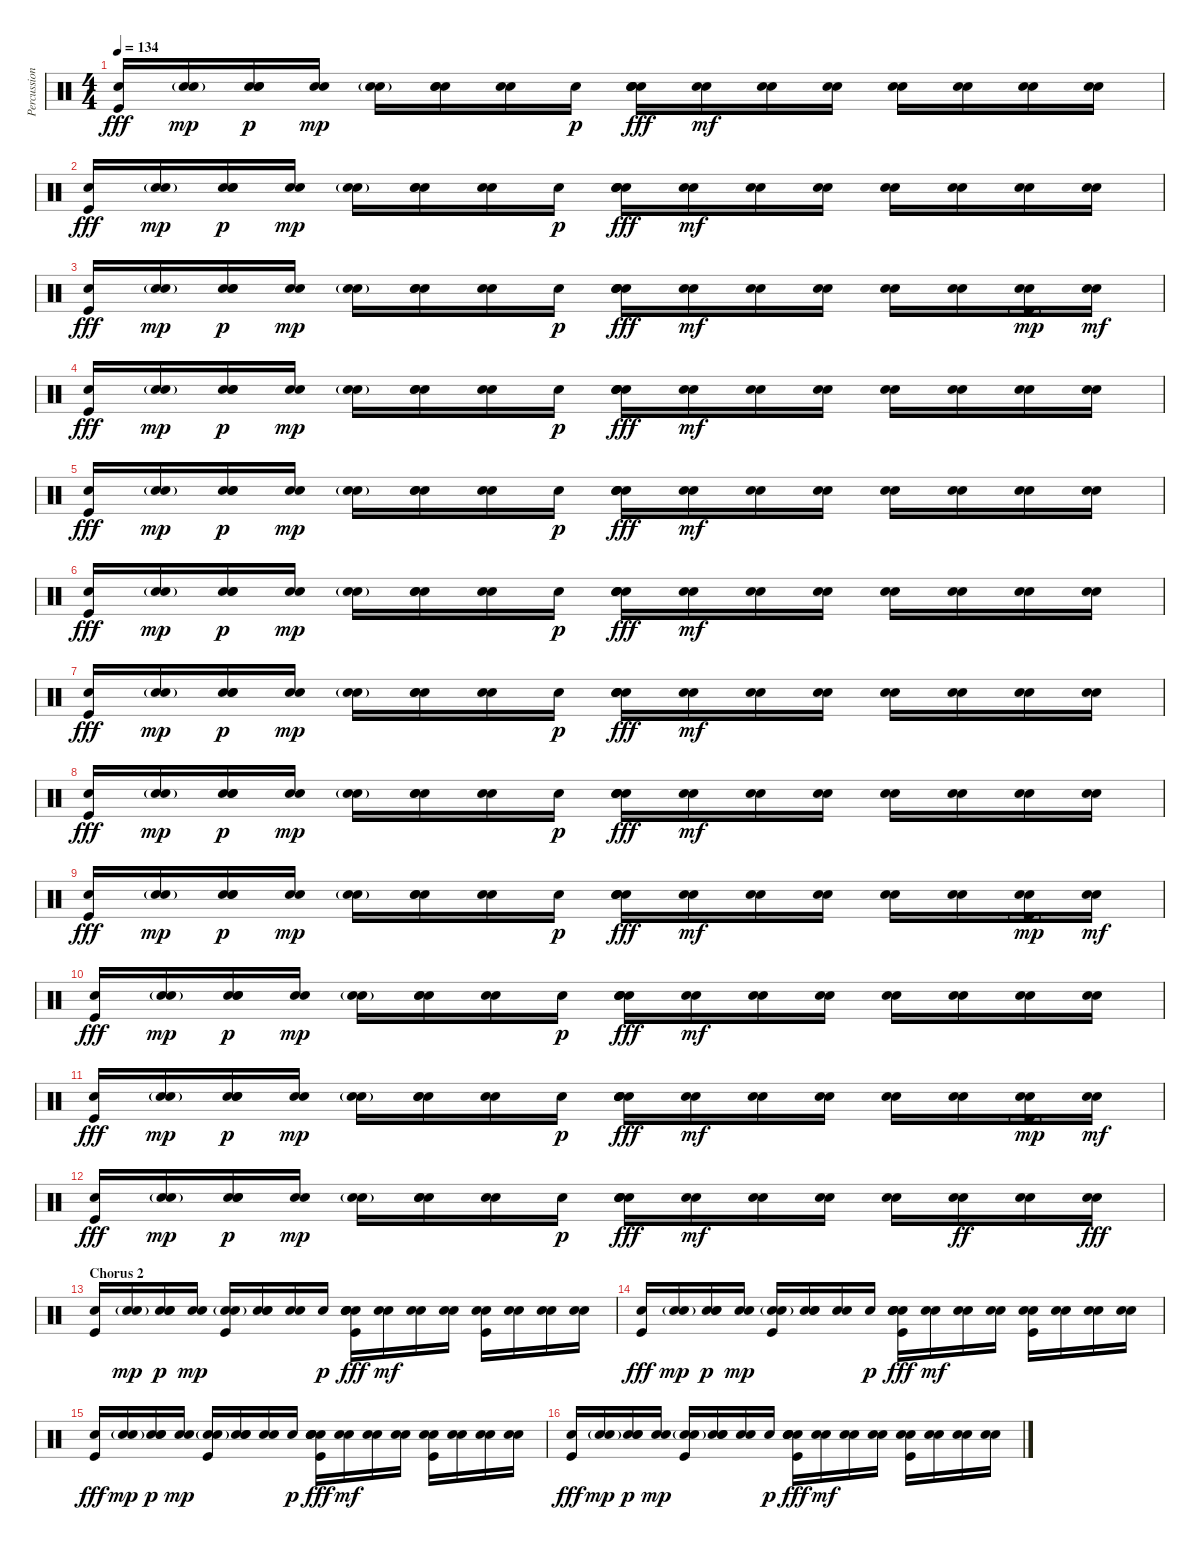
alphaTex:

\track ("Percussion" "Percussion") {instrument percussion}
\staff {score}
\articulation defaults
\ts (4 4)
\tempo 134
\clef neutral
\ks c
("Electric Snare (hit)" "Kick (hit)").16{dy fff} ("Electric Snare (hit)" "Electric Snare (hit)"{g}).16{dy mp} ("Electric Snare (hit)" "Electric Snare (hit)" "Snare (hit) 2").16{dy p} ("Electric Snare (hit)" "Snare (hit) 2").16{dy mp} ("Electric Snare (hit)" "Electric Snare (hit)"{g}).16 ("Electric Snare (hit)" "Electric Snare (hit)" "Snare (hit) 2").16 ("Electric Snare (hit)" "Snare (hit) 2").16 "Electric Snare (hit)".16{dy p} ("Electric Snare (hit)" "Snare (hit) 2" "Snare (hit) 2" "Snare (hit) 2").16{dy fff} ("Electric Snare (hit)" "Snare (hit) 2").16{dy mf} ("Electric Snare (hit)" "Snare (hit) 2").16 ("Electric Snare (hit)" "Snare (hit) 2").16 ("Electric Snare (hit)" "Snare (hit) 2").16 ("Electric Snare (hit)" "Snare (hit) 2").16 ("Electric Snare (hit)" "Snare (hit) 2").16 ("Electric Snare (hit)" "Snare (hit) 2").16 |
("Electric Snare (hit)" "Kick (hit)").16{dy fff} ("Electric Snare (hit)" "Electric Snare (hit)"{g}).16{dy mp} ("Electric Snare (hit)" "Electric Snare (hit)" "Snare (hit) 2").16{dy p} ("Electric Snare (hit)" "Snare (hit) 2").16{dy mp} ("Electric Snare (hit)" "Electric Snare (hit)"{g}).16 ("Electric Snare (hit)" "Electric Snare (hit)" "Snare (hit) 2").16 ("Electric Snare (hit)" "Snare (hit) 2").16 "Electric Snare (hit)".16{dy p} ("Electric Snare (hit)" "Snare (hit) 2" "Snare (hit) 2" "Snare (hit) 2").16{dy fff} ("Electric Snare (hit)" "Snare (hit) 2").16{dy mf} ("Electric Snare (hit)" "Snare (hit) 2").16 ("Electric Snare (hit)" "Snare (hit) 2").16 ("Electric Snare (hit)" "Snare (hit) 2").16 ("Electric Snare (hit)" "Snare (hit) 2").16 ("Electric Snare (hit)" "Snare (hit) 2").16 ("Electric Snare (hit)" "Snare (hit) 2").16 |
("Electric Snare (hit)" "Kick (hit)").16{dy fff} ("Electric Snare (hit)" "Electric Snare (hit)"{g}).16{dy mp} ("Electric Snare (hit)" "Electric Snare (hit)" "Snare (hit) 2").16{dy p} ("Electric Snare (hit)" "Snare (hit) 2").16{dy mp} ("Electric Snare (hit)" "Electric Snare (hit)"{g}).16 ("Electric Snare (hit)" "Electric Snare (hit)" "Snare (hit) 2").16 ("Electric Snare (hit)" "Snare (hit) 2").16 "Electric Snare (hit)".16{dy p} ("Electric Snare (hit)" "Snare (hit) 2" "Snare (hit) 2" "Snare (hit) 2").16{dy fff} ("Electric Snare (hit)" "Snare (hit) 2").16{dy mf} ("Electric Snare (hit)" "Snare (hit) 2").16 ("Electric Snare (hit)" "Snare (hit) 2").16 ("Electric Snare (hit)" "Snare (hit) 2").16 ("Electric Snare (hit)" "Snare (hit) 2").16 ("Electric Snare (hit)" "Snare (hit) 2" "Kick (hit)"{g}).16{dy mp} ("Electric Snare (hit)" "Snare (hit) 2").16{dy mf} |
("Electric Snare (hit)" "Kick (hit)").16{dy fff} ("Electric Snare (hit)" "Electric Snare (hit)"{g}).16{dy mp} ("Electric Snare (hit)" "Electric Snare (hit)" "Snare (hit) 2").16{dy p} ("Electric Snare (hit)" "Snare (hit) 2").16{dy mp} ("Electric Snare (hit)" "Electric Snare (hit)"{g}).16 ("Electric Snare (hit)" "Electric Snare (hit)" "Snare (hit) 2").16 ("Electric Snare (hit)" "Snare (hit) 2").16 "Electric Snare (hit)".16{dy p} ("Electric Snare (hit)" "Snare (hit) 2" "Snare (hit) 2" "Snare (hit) 2").16{dy fff} ("Electric Snare (hit)" "Snare (hit) 2").16{dy mf} ("Electric Snare (hit)" "Snare (hit) 2").16 ("Electric Snare (hit)" "Snare (hit) 2").16 ("Electric Snare (hit)" "Snare (hit) 2").16 ("Electric Snare (hit)" "Snare (hit) 2").16 ("Electric Snare (hit)" "Snare (hit) 2").16 ("Electric Snare (hit)" "Snare (hit) 2").16 |
("Electric Snare (hit)" "Kick (hit)").16{dy fff} ("Electric Snare (hit)" "Electric Snare (hit)"{g}).16{dy mp} ("Electric Snare (hit)" "Electric Snare (hit)" "Snare (hit) 2").16{dy p} ("Electric Snare (hit)" "Snare (hit) 2").16{dy mp} ("Electric Snare (hit)" "Electric Snare (hit)"{g}).16 ("Electric Snare (hit)" "Electric Snare (hit)" "Snare (hit) 2").16 ("Electric Snare (hit)" "Snare (hit) 2").16 "Electric Snare (hit)".16{dy p} ("Electric Snare (hit)" "Snare (hit) 2" "Snare (hit) 2" "Snare (hit) 2").16{dy fff} ("Electric Snare (hit)" "Snare (hit) 2").16{dy mf} ("Electric Snare (hit)" "Snare (hit) 2").16 ("Electric Snare (hit)" "Snare (hit) 2").16 ("Electric Snare (hit)" "Snare (hit) 2").16 ("Electric Snare (hit)" "Snare (hit) 2").16 ("Electric Snare (hit)" "Snare (hit) 2").16 ("Electric Snare (hit)" "Snare (hit) 2").16 |
("Electric Snare (hit)" "Kick (hit)").16{dy fff} ("Electric Snare (hit)" "Electric Snare (hit)"{g}).16{dy mp} ("Electric Snare (hit)" "Electric Snare (hit)" "Snare (hit) 2").16{dy p} ("Electric Snare (hit)" "Snare (hit) 2").16{dy mp} ("Electric Snare (hit)" "Electric Snare (hit)"{g}).16 ("Electric Snare (hit)" "Electric Snare (hit)" "Snare (hit) 2").16 ("Electric Snare (hit)" "Snare (hit) 2").16 "Electric Snare (hit)".16{dy p} ("Electric Snare (hit)" "Snare (hit) 2" "Snare (hit) 2" "Snare (hit) 2").16{dy fff} ("Electric Snare (hit)" "Snare (hit) 2").16{dy mf} ("Electric Snare (hit)" "Snare (hit) 2").16 ("Electric Snare (hit)" "Snare (hit) 2").16 ("Electric Snare (hit)" "Snare (hit) 2").16 ("Electric Snare (hit)" "Snare (hit) 2").16 ("Electric Snare (hit)" "Snare (hit) 2").16 ("Electric Snare (hit)" "Snare (hit) 2").16 |
("Electric Snare (hit)" "Kick (hit)").16{dy fff} ("Electric Snare (hit)" "Electric Snare (hit)"{g}).16{dy mp} ("Electric Snare (hit)" "Electric Snare (hit)" "Snare (hit) 2").16{dy p} ("Electric Snare (hit)" "Snare (hit) 2").16{dy mp} ("Electric Snare (hit)" "Electric Snare (hit)"{g}).16 ("Electric Snare (hit)" "Electric Snare (hit)" "Snare (hit) 2").16 ("Electric Snare (hit)" "Snare (hit) 2").16 "Electric Snare (hit)".16{dy p} ("Electric Snare (hit)" "Snare (hit) 2" "Snare (hit) 2" "Snare (hit) 2").16{dy fff} ("Electric Snare (hit)" "Snare (hit) 2").16{dy mf} ("Electric Snare (hit)" "Snare (hit) 2").16 ("Electric Snare (hit)" "Snare (hit) 2").16 ("Electric Snare (hit)" "Snare (hit) 2").16 ("Electric Snare (hit)" "Snare (hit) 2").16 ("Electric Snare (hit)" "Snare (hit) 2").16 ("Electric Snare (hit)" "Snare (hit) 2").16 |
("Electric Snare (hit)" "Kick (hit)").16{dy fff} ("Electric Snare (hit)" "Electric Snare (hit)"{g}).16{dy mp} ("Electric Snare (hit)" "Electric Snare (hit)" "Snare (hit) 2").16{dy p} ("Electric Snare (hit)" "Snare (hit) 2").16{dy mp} ("Electric Snare (hit)" "Electric Snare (hit)"{g}).16 ("Electric Snare (hit)" "Electric Snare (hit)" "Snare (hit) 2").16 ("Electric Snare (hit)" "Snare (hit) 2").16 "Electric Snare (hit)".16{dy p} ("Electric Snare (hit)" "Snare (hit) 2" "Snare (hit) 2" "Snare (hit) 2").16{dy fff} ("Electric Snare (hit)" "Snare (hit) 2").16{dy mf} ("Electric Snare (hit)" "Snare (hit) 2").16 ("Electric Snare (hit)" "Snare (hit) 2").16 ("Electric Snare (hit)" "Snare (hit) 2").16 ("Electric Snare (hit)" "Snare (hit) 2").16 ("Electric Snare (hit)" "Snare (hit) 2").16 ("Electric Snare (hit)" "Snare (hit) 2").16 |
("Electric Snare (hit)" "Kick (hit)").16{dy fff} ("Electric Snare (hit)" "Electric Snare (hit)"{g}).16{dy mp} ("Electric Snare (hit)" "Electric Snare (hit)" "Snare (hit) 2").16{dy p} ("Electric Snare (hit)" "Snare (hit) 2").16{dy mp} ("Electric Snare (hit)" "Electric Snare (hit)"{g}).16 ("Electric Snare (hit)" "Electric Snare (hit)" "Snare (hit) 2").16 ("Electric Snare (hit)" "Snare (hit) 2").16 "Electric Snare (hit)".16{dy p} ("Electric Snare (hit)" "Snare (hit) 2" "Snare (hit) 2" "Snare (hit) 2").16{dy fff} ("Electric Snare (hit)" "Snare (hit) 2").16{dy mf} ("Electric Snare (hit)" "Snare (hit) 2").16 ("Electric Snare (hit)" "Snare (hit) 2").16 ("Electric Snare (hit)" "Snare (hit) 2").16 ("Electric Snare (hit)" "Snare (hit) 2").16 ("Electric Snare (hit)" "Snare (hit) 2" "Kick (hit)"{g}).16{dy mp} ("Electric Snare (hit)" "Snare (hit) 2").16{dy mf} |
("Electric Snare (hit)" "Kick (hit)").16{dy fff} ("Electric Snare (hit)" "Electric Snare (hit)"{g}).16{dy mp} ("Electric Snare (hit)" "Electric Snare (hit)" "Snare (hit) 2").16{dy p} ("Electric Snare (hit)" "Snare (hit) 2").16{dy mp} ("Electric Snare (hit)" "Electric Snare (hit)"{g}).16 ("Electric Snare (hit)" "Electric Snare (hit)" "Snare (hit) 2").16 ("Electric Snare (hit)" "Snare (hit) 2").16 "Electric Snare (hit)".16{dy p} ("Electric Snare (hit)" "Snare (hit) 2" "Snare (hit) 2" "Snare (hit) 2").16{dy fff} ("Electric Snare (hit)" "Snare (hit) 2").16{dy mf} ("Electric Snare (hit)" "Snare (hit) 2").16 ("Electric Snare (hit)" "Snare (hit) 2").16 ("Electric Snare (hit)" "Snare (hit) 2").16 ("Electric Snare (hit)" "Snare (hit) 2").16 ("Electric Snare (hit)" "Snare (hit) 2").16 ("Electric Snare (hit)" "Snare (hit) 2").16 |
("Electric Snare (hit)" "Kick (hit)").16{dy fff} ("Electric Snare (hit)" "Electric Snare (hit)"{g}).16{dy mp} ("Electric Snare (hit)" "Electric Snare (hit)" "Snare (hit) 2").16{dy p} ("Electric Snare (hit)" "Snare (hit) 2").16{dy mp} ("Electric Snare (hit)" "Electric Snare (hit)"{g}).16 ("Electric Snare (hit)" "Electric Snare (hit)" "Snare (hit) 2").16 ("Electric Snare (hit)" "Snare (hit) 2").16 "Electric Snare (hit)".16{dy p} ("Electric Snare (hit)" "Snare (hit) 2" "Snare (hit) 2" "Snare (hit) 2").16{dy fff} ("Electric Snare (hit)" "Snare (hit) 2").16{dy mf} ("Electric Snare (hit)" "Snare (hit) 2").16 ("Electric Snare (hit)" "Snare (hit) 2").16 ("Electric Snare (hit)" "Snare (hit) 2").16 ("Electric Snare (hit)" "Snare (hit) 2").16 ("Electric Snare (hit)" "Snare (hit) 2" "Kick (hit)"{g}).16{dy mp} ("Electric Snare (hit)" "Snare (hit) 2").16{dy mf} |
("Electric Snare (hit)" "Kick (hit)").16{dy fff} ("Electric Snare (hit)" "Electric Snare (hit)"{g}).16{dy mp} ("Electric Snare (hit)" "Electric Snare (hit)" "Snare (hit) 2").16{dy p} ("Electric Snare (hit)" "Snare (hit) 2").16{dy mp} ("Electric Snare (hit)" "Electric Snare (hit)"{g}).16 ("Electric Snare (hit)" "Electric Snare (hit)" "Snare (hit) 2").16 ("Electric Snare (hit)" "Snare (hit) 2").16 "Electric Snare (hit)".16{dy p} ("Electric Snare (hit)" "Snare (hit) 2" "Snare (hit) 2" "Snare (hit) 2").16{dy fff} ("Electric Snare (hit)" "Snare (hit) 2").16{dy mf} ("Electric Snare (hit)" "Snare (hit) 2").16 ("Electric Snare (hit)" "Snare (hit) 2").16 ("Electric Snare (hit)" "Snare (hit) 2").16 ("Electric Snare (hit)" "Snare (hit) 2").16{dy ff} ("Electric Snare (hit)" "Snare (hit) 2").16 ("Electric Snare (hit)" "Snare (hit) 2").16{dy fff} |
\section ("" "Chorus 2")
("Electric Snare (hit)" "Kick (hit)").16 ("Electric Snare (hit)" "Electric Snare (hit)"{g}).16{dy mp} ("Electric Snare (hit)" "Electric Snare (hit)" "Snare (hit) 2").16{dy p} ("Electric Snare (hit)" "Snare (hit) 2").16{dy mp} ("Electric Snare (hit)" "Electric Snare (hit)"{g} "Kick (hit)").16 ("Electric Snare (hit)" "Electric Snare (hit)" "Snare (hit) 2").16 ("Electric Snare (hit)" "Snare (hit) 2").16 "Electric Snare (hit)".16{dy p} ("Electric Snare (hit)" "Snare (hit) 2" "Snare (hit) 2" "Snare (hit) 2" "Kick (hit)").16{dy fff} ("Electric Snare (hit)" "Snare (hit) 2").16{dy mf} ("Electric Snare (hit)" "Snare (hit) 2").16 ("Electric Snare (hit)" "Snare (hit) 2").16 ("Electric Snare (hit)" "Snare (hit) 2" "Kick (hit)").16 ("Electric Snare (hit)" "Snare (hit) 2").16 ("Electric Snare (hit)" "Snare (hit) 2").16 ("Electric Snare (hit)" "Snare (hit) 2").16 |
("Electric Snare (hit)" "Kick (hit)").16{dy fff} ("Electric Snare (hit)" "Electric Snare (hit)"{g}).16{dy mp} ("Electric Snare (hit)" "Electric Snare (hit)" "Snare (hit) 2").16{dy p} ("Electric Snare (hit)" "Snare (hit) 2").16{dy mp} ("Electric Snare (hit)" "Electric Snare (hit)"{g} "Kick (hit)").16 ("Electric Snare (hit)" "Electric Snare (hit)" "Snare (hit) 2").16 ("Electric Snare (hit)" "Snare (hit) 2").16 "Electric Snare (hit)".16{dy p} ("Electric Snare (hit)" "Snare (hit) 2" "Snare (hit) 2" "Snare (hit) 2" "Kick (hit)").16{dy fff} ("Electric Snare (hit)" "Snare (hit) 2").16{dy mf} ("Electric Snare (hit)" "Snare (hit) 2").16 ("Electric Snare (hit)" "Snare (hit) 2").16 ("Electric Snare (hit)" "Snare (hit) 2" "Kick (hit)").16 ("Electric Snare (hit)" "Snare (hit) 2").16 ("Electric Snare (hit)" "Snare (hit) 2").16 ("Electric Snare (hit)" "Snare (hit) 2").16 |
("Electric Snare (hit)" "Kick (hit)").16{dy fff} ("Electric Snare (hit)" "Electric Snare (hit)"{g}).16{dy mp} ("Electric Snare (hit)" "Electric Snare (hit)" "Snare (hit) 2").16{dy p} ("Electric Snare (hit)" "Snare (hit) 2").16{dy mp} ("Electric Snare (hit)" "Electric Snare (hit)"{g} "Kick (hit)").16 ("Electric Snare (hit)" "Electric Snare (hit)" "Snare (hit) 2").16 ("Electric Snare (hit)" "Snare (hit) 2").16 "Electric Snare (hit)".16{dy p} ("Electric Snare (hit)" "Snare (hit) 2" "Snare (hit) 2" "Snare (hit) 2" "Kick (hit)").16{dy fff} ("Electric Snare (hit)" "Snare (hit) 2").16{dy mf} ("Electric Snare (hit)" "Snare (hit) 2").16 ("Electric Snare (hit)" "Snare (hit) 2").16 ("Electric Snare (hit)" "Snare (hit) 2" "Kick (hit)").16 ("Electric Snare (hit)" "Snare (hit) 2").16 ("Electric Snare (hit)" "Snare (hit) 2").16 ("Electric Snare (hit)" "Snare (hit) 2").16 |
("Electric Snare (hit)" "Kick (hit)").16{dy fff} ("Electric Snare (hit)" "Electric Snare (hit)"{g}).16{dy mp} ("Electric Snare (hit)" "Electric Snare (hit)" "Snare (hit) 2").16{dy p} ("Electric Snare (hit)" "Snare (hit) 2").16{dy mp} ("Electric Snare (hit)" "Electric Snare (hit)"{g} "Kick (hit)").16 ("Electric Snare (hit)" "Electric Snare (hit)" "Snare (hit) 2").16 ("Electric Snare (hit)" "Snare (hit) 2").16 "Electric Snare (hit)".16{dy p} ("Electric Snare (hit)" "Snare (hit) 2" "Snare (hit) 2" "Snare (hit) 2" "Kick (hit)").16{dy fff} ("Electric Snare (hit)" "Snare (hit) 2").16{dy mf} ("Electric Snare (hit)" "Snare (hit) 2").16 ("Electric Snare (hit)" "Snare (hit) 2").16 ("Electric Snare (hit)" "Snare (hit) 2" "Kick (hit)").16 ("Electric Snare (hit)" "Snare (hit) 2").16 ("Electric Snare (hit)" "Snare (hit) 2").16 ("Electric Snare (hit)" "Snare (hit) 2").16
